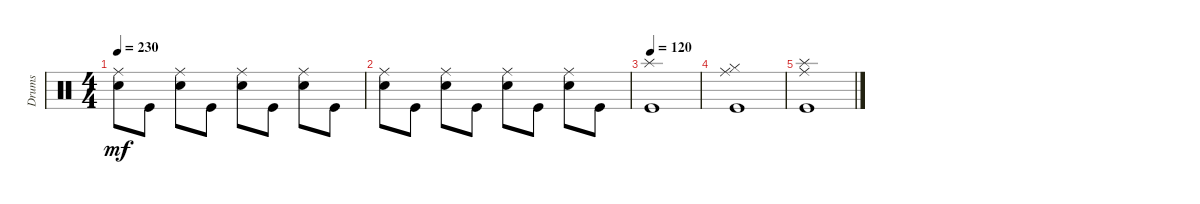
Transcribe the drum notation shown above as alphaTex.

\track ("Drums" "Drums") {instrument percussion}
\staff {score}
\articulation defaults
\ts (4 4)
\tempo 230
\clef neutral
\ks c
("Snare (hit) 2" "Ride (middle)").8{dy mf} "Kick (hit)".8 ("Snare (hit) 2" "Ride (middle)").8 "Kick (hit)".8 ("Snare (hit) 2" "Ride (middle)").8 "Kick (hit)".8 ("Snare (hit) 2" "Ride (middle)").8 "Kick (hit)".8 |
("Snare (hit) 2" "Ride (middle)").8 "Kick (hit)".8 ("Snare (hit) 2" "Ride (middle)").8 "Kick (hit)".8 ("Snare (hit) 2" "Ride (middle)").8 "Kick (hit)".8 ("Snare (hit) 2" "Ride (middle)").8 "Kick (hit)".8 |
\tempo 120
("Kick (hit)" "Splash (hit)").1 |
("Kick (hit)" "Hi-Hat (closed)" "Ride (middle)").1 |
("Kick (hit)" "Splash (hit)" "Ride (middle)").1
